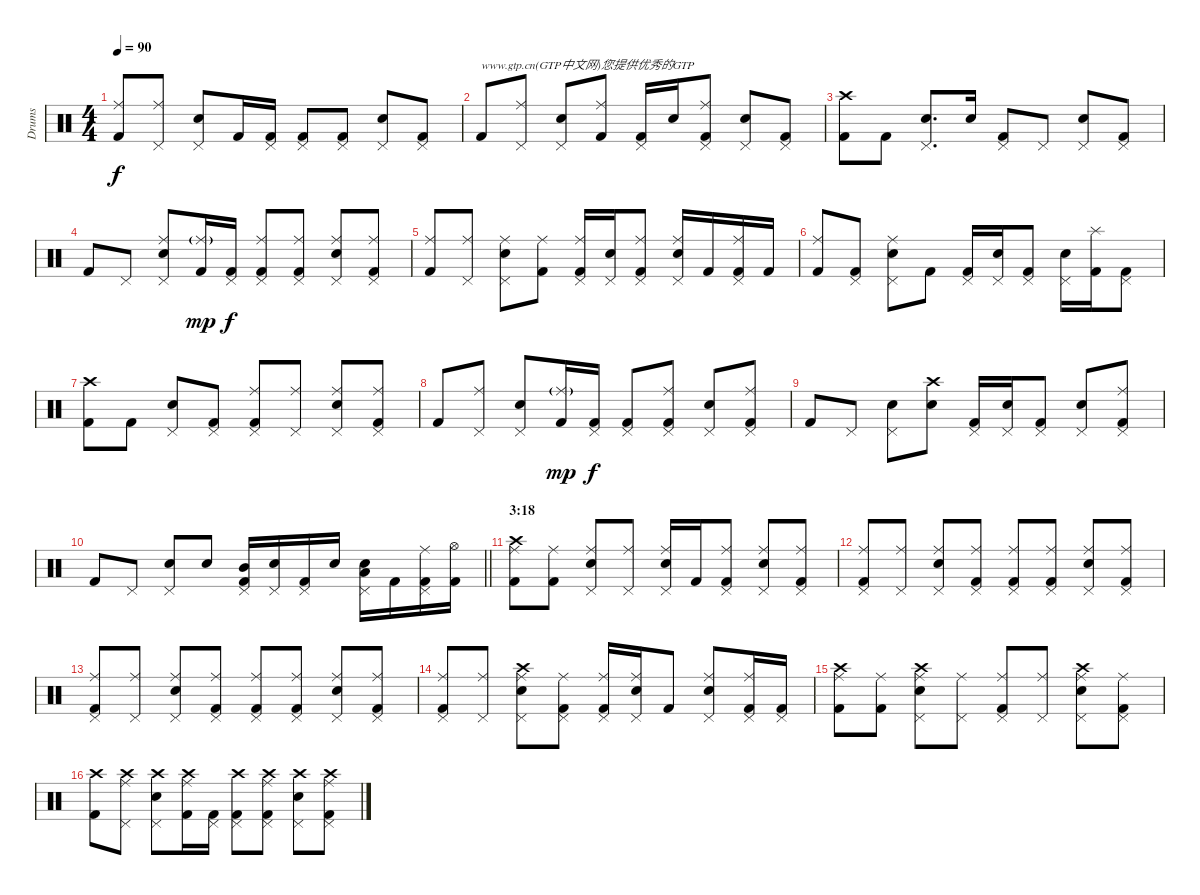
\track ("Drums" "Drums") {instrument percussion}
\staff {score}
\articulation defaults
\ts (4 4)
\tempo 90
\clef neutral
\ks c
("Kick (hit) 2" "Ride (middle)").8{dy f} ("Pedal Hi-Hat (hit)" "Ride (middle)").8 ("Snare (hit) 2" "Pedal Hi-Hat (hit)").8 "Kick (hit) 2".16 ("Kick (hit) 2" "Pedal Hi-Hat (hit)").16 ("Kick (hit) 2" "Pedal Hi-Hat (hit)").8 ("Kick (hit) 2" "Pedal Hi-Hat (hit)").8 ("Snare (hit) 2" "Pedal Hi-Hat (hit)").8 ("Kick (hit) 2" "Pedal Hi-Hat (hit)").8 |
"Kick (hit) 2".8{txt "www.gtp.cn(GTP中文网)您提供优秀的GTP"} ("Pedal Hi-Hat (hit)" "Ride (middle)").8 ("Snare (hit) 2" "Pedal Hi-Hat (hit)").8 ("Kick (hit) 2" "Ride (middle)").8 ("Kick (hit) 2" "Pedal Hi-Hat (hit)").16 "Snare (hit) 2".16 ("Kick (hit) 2" "Pedal Hi-Hat (hit)" "Ride (middle)").8 ("Snare (hit) 2" "Pedal Hi-Hat (hit)").8 ("Kick (hit) 2" "Pedal Hi-Hat (hit)").8 |
("Kick (hit) 2" "Crash high (hit)").8 "Kick (hit) 2".8 ("Snare (hit) 2" "Pedal Hi-Hat (hit)").8{d} "Snare (hit) 2".16 ("Kick (hit) 2" "Pedal Hi-Hat (hit)").8 "Pedal Hi-Hat (hit)".8 ("Snare (hit) 2" "Pedal Hi-Hat (hit)").8 ("Kick (hit) 2" "Pedal Hi-Hat (hit)").8 |
"Kick (hit) 2".8 "Pedal Hi-Hat (hit)".8 ("Snare (hit) 2" "Pedal Hi-Hat (hit)" "Ride (middle)").8 ("Kick (hit) 2" "Ride (middle)"{g}).16{dy mp} ("Kick (hit) 2" "Pedal Hi-Hat (hit)").16{dy f} ("Kick (hit) 2" "Pedal Hi-Hat (hit)" "Ride (middle)").8 ("Kick (hit) 2" "Pedal Hi-Hat (hit)" "Ride (middle)").8 ("Snare (hit) 2" "Pedal Hi-Hat (hit)" "Ride (middle)").8 ("Kick (hit) 2" "Pedal Hi-Hat (hit)" "Ride (middle)").8 |
("Kick (hit) 2" "Ride (middle)").8 ("Pedal Hi-Hat (hit)" "Ride (middle)").8 ("Snare (hit) 2" "Pedal Hi-Hat (hit)" "Ride (middle)").8 ("Kick (hit) 2" "Ride (middle)").8 ("Kick (hit) 2" "Pedal Hi-Hat (hit)" "Ride (middle)").16 ("Snare (hit) 2" "Pedal Hi-Hat (hit)").16 ("Kick (hit) 2" "Pedal Hi-Hat (hit)" "Ride (middle)").8 ("Snare (hit) 2" "Pedal Hi-Hat (hit)" "Ride (middle)").16 "Kick (hit) 2".16 ("Kick (hit) 2" "Pedal Hi-Hat (hit)" "Ride (middle)").16 "Kick (hit) 2".16 |
("Kick (hit) 2" "Ride (middle)").8 ("Kick (hit) 2" "Pedal Hi-Hat (hit)").8 ("Snare (hit) 2" "Pedal Hi-Hat (hit)" "Ride (middle)").8 "Kick (hit) 2".8 ("Kick (hit) 2" "Pedal Hi-Hat (hit)").16 ("Snare (hit) 2" "Pedal Hi-Hat (hit)").16 ("Kick (hit) 2" "Pedal Hi-Hat (hit)").8 ("Snare (hit) 2" "Pedal Hi-Hat (hit)").16 ("Kick (hit) 2" "Splash (hit)").16 ("Kick (hit) 2" "Pedal Hi-Hat (hit)").8 |
("Kick (hit) 2" "Crash high (hit)").8 "Kick (hit) 2".8 ("Snare (hit) 2" "Pedal Hi-Hat (hit)").8 ("Kick (hit) 2" "Pedal Hi-Hat (hit)").8 ("Kick (hit) 2" "Pedal Hi-Hat (hit)" "Ride (middle)").8 ("Pedal Hi-Hat (hit)" "Ride (middle)").8 ("Snare (hit) 2" "Pedal Hi-Hat (hit)" "Ride (middle)").8 ("Kick (hit) 2" "Pedal Hi-Hat (hit)" "Ride (middle)").8 |
"Kick (hit) 2".8 ("Pedal Hi-Hat (hit)" "Ride (middle)").8 ("Snare (hit) 2" "Pedal Hi-Hat (hit)").8 ("Kick (hit) 2" "Ride (middle)"{g}).16{dy mp} ("Kick (hit) 2" "Pedal Hi-Hat (hit)").16{dy f} ("Kick (hit) 2" "Pedal Hi-Hat (hit)").8 ("Kick (hit) 2" "Pedal Hi-Hat (hit)" "Ride (middle)").8 ("Snare (hit) 2" "Pedal Hi-Hat (hit)").8 ("Kick (hit) 2" "Pedal Hi-Hat (hit)" "Ride (middle)").8 |
"Kick (hit) 2".8 "Pedal Hi-Hat (hit)".8 ("Snare (hit) 2" "Pedal Hi-Hat (hit)").8 ("Snare (hit) 2" "Crash high (hit)").8 ("Kick (hit) 2" "Pedal Hi-Hat (hit)").16 ("Snare (hit) 2" "Pedal Hi-Hat (hit)").16 ("Kick (hit) 2" "Pedal Hi-Hat (hit)").8 ("Snare (hit) 2" "Pedal Hi-Hat (hit)").8 ("Kick (hit) 2" "Pedal Hi-Hat (hit)" "Ride (middle)").8 |
\barLineRight lightlight "Kick (hit) 2".8 "Pedal Hi-Hat (hit)".8
("Snare (hit) 2" "Pedal Hi-Hat (hit)").8 "Snare (hit) 2".8 ("Kick (hit) 2" "Pedal Hi-Hat (hit)" "Mid Tom (hit)").16 ("Snare (hit) 2" "Pedal Hi-Hat (hit)").16 ("Kick (hit) 2" "Pedal Hi-Hat (hit)").16 "Snare (hit) 2".16 ("Snare (hit) 2" "Pedal Hi-Hat (hit)" "Low Tom (hit)").16 "Kick (hit) 2".16 ("Kick (hit) 2" "Pedal Hi-Hat (hit)" "Ride (middle)").16 ("Kick (hit) 2" "Hi-Hat (open)").16 |
\section ("" "3:18")
("Kick (hit) 2" "Crash high (hit)" "Ride (middle)").8 ("Kick (hit) 2" "Ride (middle)").8 ("Snare (hit) 2" "Pedal Hi-Hat (hit)" "Ride (middle)").8 ("Pedal Hi-Hat (hit)" "Ride (middle)").8 ("Snare (hit) 2" "Pedal Hi-Hat (hit)" "Ride (middle)").16 "Kick (hit) 2".16 ("Kick (hit) 2" "Pedal Hi-Hat (hit)" "Ride (middle)").8 ("Snare (hit) 2" "Pedal Hi-Hat (hit)" "Ride (middle)").8 ("Kick (hit) 2" "Pedal Hi-Hat (hit)" "Ride (middle)").8 |
("Kick (hit) 2" "Pedal Hi-Hat (hit)" "Ride (middle)").8 ("Pedal Hi-Hat (hit)" "Ride (middle)").8 ("Snare (hit) 2" "Pedal Hi-Hat (hit)" "Ride (middle)").8 ("Kick (hit) 2" "Pedal Hi-Hat (hit)" "Ride (middle)").8 ("Kick (hit) 2" "Pedal Hi-Hat (hit)" "Ride (middle)").8 ("Kick (hit) 2" "Pedal Hi-Hat (hit)" "Ride (middle)").8 ("Snare (hit) 2" "Pedal Hi-Hat (hit)" "Ride (middle)").8 ("Kick (hit) 2" "Pedal Hi-Hat (hit)" "Ride (middle)").8 |
("Kick (hit) 2" "Pedal Hi-Hat (hit)" "Ride (middle)").8 ("Pedal Hi-Hat (hit)" "Ride (middle)").8 ("Snare (hit) 2" "Pedal Hi-Hat (hit)" "Ride (middle)").8 ("Kick (hit) 2" "Pedal Hi-Hat (hit)" "Ride (middle)").8 ("Kick (hit) 2" "Pedal Hi-Hat (hit)" "Ride (middle)").8 ("Kick (hit) 2" "Pedal Hi-Hat (hit)" "Ride (middle)").8 ("Snare (hit) 2" "Pedal Hi-Hat (hit)" "Ride (middle)").8 ("Kick (hit) 2" "Pedal Hi-Hat (hit)" "Ride (middle)").8 |
("Kick (hit) 2" "Pedal Hi-Hat (hit)" "Ride (middle)").8 ("Pedal Hi-Hat (hit)" "Ride (middle)").8 ("Snare (hit) 2" "Pedal Hi-Hat (hit)" "Crash high (hit)" "Ride (middle)").8 ("Kick (hit) 2" "Pedal Hi-Hat (hit)" "Ride (middle)").8 ("Kick (hit) 2" "Pedal Hi-Hat (hit)" "Ride (middle)").16 ("Snare (hit) 2" "Pedal Hi-Hat (hit)" "Ride (middle)").16 "Kick (hit) 2".8 ("Snare (hit) 2" "Pedal Hi-Hat (hit)" "Ride (middle)").8 ("Kick (hit) 2" "Pedal Hi-Hat (hit)" "Ride (middle)").16 ("Kick (hit) 2" "Pedal Hi-Hat (hit)").16 |
("Kick (hit) 2" "Crash high (hit)" "Ride (middle)").8 ("Kick (hit) 2" "Ride (middle)").8 ("Snare (hit) 2" "Pedal Hi-Hat (hit)" "Crash high (hit)" "Ride (middle)").8 ("Pedal Hi-Hat (hit)" "Ride (middle)").8 ("Kick (hit) 2" "Pedal Hi-Hat (hit)" "Ride (middle)").8 ("Pedal Hi-Hat (hit)" "Ride (middle)").8 ("Snare (hit) 2" "Pedal Hi-Hat (hit)" "Crash high (hit)" "Ride (middle)").8 ("Kick (hit) 2" "Pedal Hi-Hat (hit)" "Ride (middle)").8 |
("Kick (hit) 2" "Crash high (hit)").8 ("Pedal Hi-Hat (hit)" "Crash high (hit)" "Ride (middle)").8 ("Snare (hit) 2" "Pedal Hi-Hat (hit)" "Crash high (hit)").8 ("Kick (hit) 2" "Crash high (hit)" "Ride (middle)").16 ("Kick (hit) 2" "Pedal Hi-Hat (hit)").16 ("Kick (hit) 2" "Pedal Hi-Hat (hit)" "Crash high (hit)").8 ("Kick (hit) 2" "Pedal Hi-Hat (hit)" "Crash high (hit)" "Ride (middle)").8 ("Snare (hit) 2" "Pedal Hi-Hat (hit)" "Crash high (hit)").8 ("Kick (hit) 2" "Pedal Hi-Hat (hit)" "Crash high (hit)" "Ride (middle)").8
